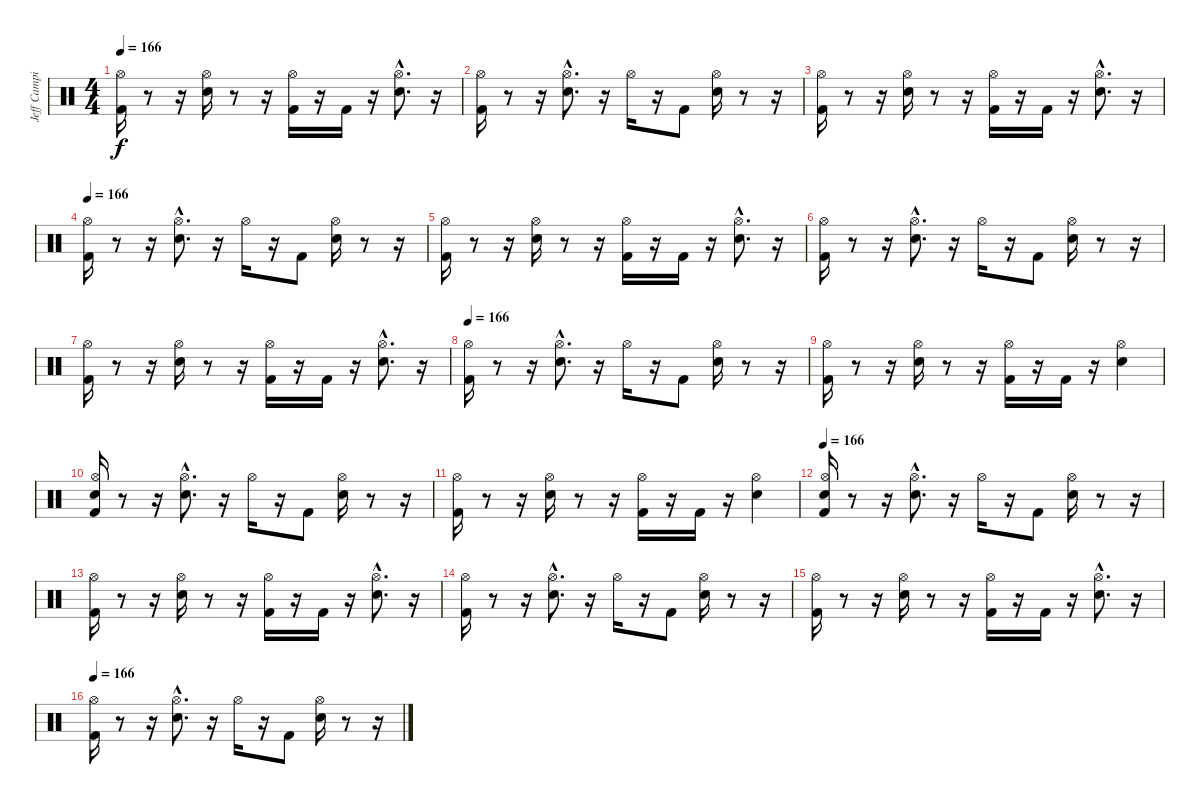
\track ("Jeff Campitelli" "Jeff Campi") {instrument percussion}
\staff {score}
\articulation defaults
\ts (4 4)
\tempo 166
\clef neutral
\ks c
("Kick (hit) 2" "Hi-Hat (open)").16{dy f} r.8 r.16 ("Snare (hit) 2" "Hi-Hat (open)").16 r.8 r.16 ("Kick (hit) 2" "Hi-Hat (open)").16 r.16 "Kick (hit) 2".16 r.16 ("Snare (hit) 2"{hac} "Hi-Hat (open)"{hac}).8{d} r.16 |
("Kick (hit) 2" "Hi-Hat (open)").16 r.8 r.16 ("Hi-Hat (open)"{hac} "Snare (hit) 2"{hac}).8{d} r.16 "Hi-Hat (open)".16 r.16 "Kick (hit) 2".8 ("Snare (hit) 2" "Hi-Hat (open)").16 r.8 r.16 |
("Kick (hit) 2" "Hi-Hat (open)").16 r.8 r.16 ("Snare (hit) 2" "Hi-Hat (open)").16 r.8 r.16 ("Kick (hit) 2" "Hi-Hat (open)").16 r.16 "Kick (hit) 2".16 r.16 ("Snare (hit) 2"{hac} "Hi-Hat (open)"{hac}).8{d} r.16 |
\tempo 166
("Kick (hit) 2" "Hi-Hat (open)").16 r.8 r.16 ("Hi-Hat (open)"{hac} "Snare (hit) 2"{hac}).8{d} r.16 "Hi-Hat (open)".16 r.16 "Kick (hit) 2".8 ("Snare (hit) 2" "Hi-Hat (open)").16 r.8 r.16 |
("Kick (hit) 2" "Hi-Hat (open)").16 r.8 r.16 ("Snare (hit) 2" "Hi-Hat (open)").16 r.8 r.16 ("Kick (hit) 2" "Hi-Hat (open)").16 r.16 "Kick (hit) 2".16 r.16 ("Snare (hit) 2"{hac} "Hi-Hat (open)"{hac}).8{d} r.16 |
("Kick (hit) 2" "Hi-Hat (open)").16 r.8 r.16 ("Hi-Hat (open)"{hac} "Snare (hit) 2"{hac}).8{d} r.16 "Hi-Hat (open)".16 r.16 "Kick (hit) 2".8 ("Snare (hit) 2" "Hi-Hat (open)").16 r.8 r.16 |
("Kick (hit) 2" "Hi-Hat (open)").16 r.8 r.16 ("Snare (hit) 2" "Hi-Hat (open)").16 r.8 r.16 ("Kick (hit) 2" "Hi-Hat (open)").16 r.16 "Kick (hit) 2".16 r.16 ("Snare (hit) 2"{hac} "Hi-Hat (open)"{hac}).8{d} r.16 |
\tempo 166
("Kick (hit) 2" "Hi-Hat (open)").16 r.8 r.16 ("Hi-Hat (open)"{hac} "Snare (hit) 2"{hac}).8{d} r.16 "Hi-Hat (open)".16 r.16 "Kick (hit) 2".8 ("Snare (hit) 2" "Hi-Hat (open)").16 r.8 r.16 |
("Kick (hit) 2" "Hi-Hat (open)").16 r.8 r.16 ("Snare (hit) 2" "Hi-Hat (open)").16 r.8 r.16 ("Kick (hit) 2" "Hi-Hat (open)").16 r.16 "Kick (hit) 2".16 r.16 ("Snare (hit) 2" "Hi-Hat (open)").4 |
("Snare (hit)" "Kick (hit) 2" "Hi-Hat (open)").16 r.8 r.16 ("Hi-Hat (open)"{hac} "Snare (hit) 2"{hac}).8{d} r.16 "Hi-Hat (open)".16 r.16 "Kick (hit) 2".8 ("Snare (hit) 2" "Hi-Hat (open)").16 r.8 r.16 |
("Kick (hit) 2" "Hi-Hat (open)").16 r.8 r.16 ("Snare (hit) 2" "Hi-Hat (open)").16 r.8 r.16 ("Kick (hit) 2" "Hi-Hat (open)").16 r.16 "Kick (hit) 2".16 r.16 ("Snare (hit) 2" "Hi-Hat (open)").4 |
\tempo 166
("Snare (hit)" "Kick (hit) 2" "Hi-Hat (open)").16 r.8 r.16 ("Hi-Hat (open)"{hac} "Snare (hit) 2"{hac}).8{d} r.16 "Hi-Hat (open)".16 r.16 "Kick (hit) 2".8 ("Snare (hit) 2" "Hi-Hat (open)").16 r.8 r.16 |
("Kick (hit) 2" "Hi-Hat (open)").16 r.8 r.16 ("Snare (hit) 2" "Hi-Hat (open)").16 r.8 r.16 ("Kick (hit) 2" "Hi-Hat (open)").16 r.16 "Kick (hit) 2".16 r.16 ("Snare (hit) 2"{hac} "Hi-Hat (open)"{hac}).8{d} r.16 |
("Kick (hit) 2" "Hi-Hat (open)").16 r.8 r.16 ("Hi-Hat (open)"{hac} "Snare (hit) 2"{hac}).8{d} r.16 "Hi-Hat (open)".16 r.16 "Kick (hit) 2".8 ("Snare (hit) 2" "Hi-Hat (open)").16 r.8 r.16 |
("Kick (hit) 2" "Hi-Hat (open)").16 r.8 r.16 ("Snare (hit) 2" "Hi-Hat (open)").16 r.8 r.16 ("Kick (hit) 2" "Hi-Hat (open)").16 r.16 "Kick (hit) 2".16 r.16 ("Snare (hit) 2"{hac} "Hi-Hat (open)"{hac}).8{d} r.16 |
\tempo 166
("Kick (hit) 2" "Hi-Hat (open)").16 r.8 r.16 ("Hi-Hat (open)"{hac} "Snare (hit) 2"{hac}).8{d} r.16 "Hi-Hat (open)".16 r.16 "Kick (hit) 2".8 ("Snare (hit) 2" "Hi-Hat (open)").16 r.8 r.16
